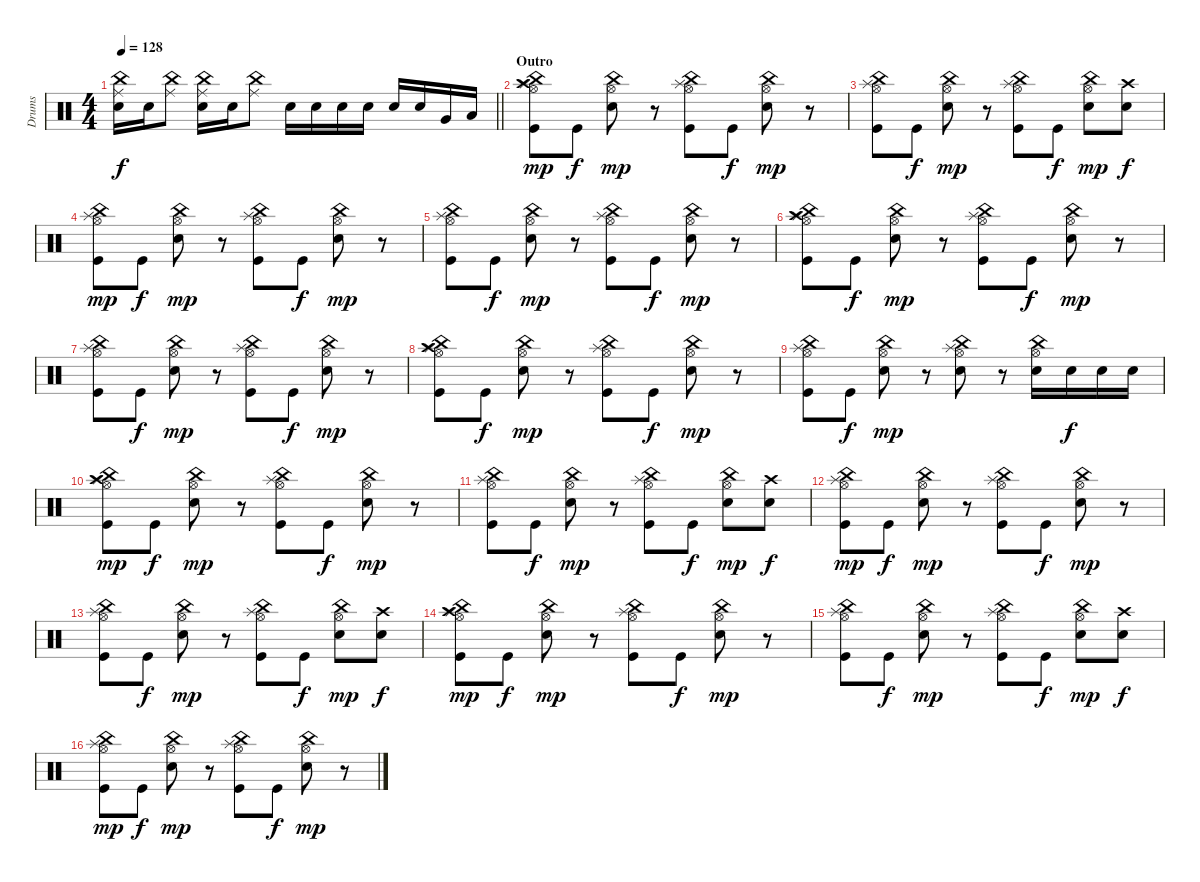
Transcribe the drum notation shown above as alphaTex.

\track ("Drums" "Drums") {instrument percussion}
\staff {score}
\articulation defaults
\ts (4 4)
\tempo 128
\clef neutral
\barLineRight lightlight
\ks c
("Ride (middle)" "China (hit)" "Electric Snare (hit)").16{dy f} "Electric Snare (hit)".16 ("Ride (middle)" "China (hit)").8 ("Ride (middle)" "China (hit)" "Electric Snare (hit)").16 "Electric Snare (hit)".16 ("Ride (middle)" "China (hit)").8 "Electric Snare (hit)".16 "Electric Snare (hit)".16 "Electric Snare (hit)".16 "Electric Snare (hit)".16 "Electric Snare (hit)".16 "Electric Snare (hit)".16 "Very Low Tom (hit)".16 "Low Floor Tom (hit)".16 |
\section ("" "Outro")
("Crash high (hit)" "Hi-Hat (open)" "China (hit)" "Splash (hit)" "Kick (hit)").8{dy mp volume 16} "Kick (hit)".8{dy f} ("Hi-Hat (open)" "China (hit)" "Snare (hit) 2").8{dy mp} r.8 ("Hi-Hat (open)" "China (hit)" "Splash (hit)" "Kick (hit)").8 "Kick (hit)".8{dy f} ("Hi-Hat (open)" "China (hit)" "Snare (hit) 2").8{dy mp} r.8 |
("Hi-Hat (open)" "China (hit)" "Splash (hit)" "Kick (hit)").8 "Kick (hit)".8{dy f} ("Hi-Hat (open)" "China (hit)" "Snare (hit) 2").8{dy mp} r.8 ("Hi-Hat (open)" "China (hit)" "Splash (hit)" "Kick (hit)").8 "Kick (hit)".8{dy f} ("Hi-Hat (open)" "China (hit)" "Snare (hit) 2").8{dy mp} ("Crash high (hit)" "Snare (hit) 2").8{dy f} |
("Hi-Hat (open)" "China (hit)" "Splash (hit)" "Kick (hit)").8{dy mp} "Kick (hit)".8{dy f} ("Hi-Hat (open)" "China (hit)" "Snare (hit) 2").8{dy mp} r.8 ("Hi-Hat (open)" "China (hit)" "Splash (hit)" "Kick (hit)").8 "Kick (hit)".8{dy f} ("Hi-Hat (open)" "China (hit)" "Snare (hit) 2").8{dy mp} r.8 |
("Hi-Hat (open)" "China (hit)" "Splash (hit)" "Kick (hit)").8 "Kick (hit)".8{dy f} ("Hi-Hat (open)" "China (hit)" "Snare (hit) 2").8{dy mp} r.8 ("Hi-Hat (open)" "China (hit)" "Splash (hit)" "Kick (hit)").8 "Kick (hit)".8{dy f} ("Hi-Hat (open)" "China (hit)" "Snare (hit) 2").8{dy mp} r.8 |
("Crash high (hit)" "Hi-Hat (open)" "China (hit)" "Splash (hit)" "Kick (hit)").8 "Kick (hit)".8{dy f} ("Hi-Hat (open)" "China (hit)" "Snare (hit) 2").8{dy mp} r.8 ("Hi-Hat (open)" "China (hit)" "Splash (hit)" "Kick (hit)").8 "Kick (hit)".8{dy f} ("Hi-Hat (open)" "China (hit)" "Snare (hit) 2").8{dy mp} r.8 |
("Hi-Hat (open)" "China (hit)" "Splash (hit)" "Kick (hit)").8 "Kick (hit)".8{dy f} ("Hi-Hat (open)" "China (hit)" "Snare (hit) 2").8{dy mp} r.8 ("Hi-Hat (open)" "China (hit)" "Splash (hit)" "Kick (hit)").8 "Kick (hit)".8{dy f} ("Hi-Hat (open)" "China (hit)" "Snare (hit) 2").8{dy mp} r.8 |
("Crash high (hit)" "Hi-Hat (open)" "China (hit)" "Splash (hit)" "Kick (hit)").8 "Kick (hit)".8{dy f} ("Hi-Hat (open)" "China (hit)" "Snare (hit) 2").8{dy mp} r.8 ("Hi-Hat (open)" "China (hit)" "Splash (hit)" "Kick (hit)").8 "Kick (hit)".8{dy f} ("Hi-Hat (open)" "China (hit)" "Snare (hit) 2").8{dy mp} r.8 |
("Hi-Hat (open)" "China (hit)" "Splash (hit)" "Kick (hit)").8 "Kick (hit)".8{dy f} ("Hi-Hat (open)" "China (hit)" "Snare (hit) 2").8{dy mp} r.8 ("Hi-Hat (open)" "China (hit)" "Splash (hit)" "Snare (hit) 2").8 r.8 ("Hi-Hat (open)" "China (hit)" "Snare (hit) 2").16 "Snare (hit) 2".16{dy f} "Snare (hit) 2".16 "Snare (hit) 2".16 |
("Crash high (hit)" "Hi-Hat (open)" "China (hit)" "Splash (hit)" "Kick (hit)").8{dy mp} "Kick (hit)".8{dy f} ("Hi-Hat (open)" "China (hit)" "Snare (hit) 2").8{dy mp} r.8 ("Hi-Hat (open)" "China (hit)" "Splash (hit)" "Kick (hit)").8 "Kick (hit)".8{dy f} ("Hi-Hat (open)" "China (hit)" "Snare (hit) 2").8{dy mp} r.8 |
("Hi-Hat (open)" "China (hit)" "Splash (hit)" "Kick (hit)").8 "Kick (hit)".8{dy f} ("Hi-Hat (open)" "China (hit)" "Snare (hit) 2").8{dy mp} r.8 ("Hi-Hat (open)" "China (hit)" "Splash (hit)" "Kick (hit)").8 "Kick (hit)".8{dy f} ("Hi-Hat (open)" "China (hit)" "Snare (hit) 2").8{dy mp} ("Crash high (hit)" "Snare (hit) 2").8{dy f} |
("Hi-Hat (open)" "China (hit)" "Splash (hit)" "Kick (hit)").8{dy mp} "Kick (hit)".8{dy f} ("Hi-Hat (open)" "China (hit)" "Snare (hit) 2").8{dy mp} r.8 ("Hi-Hat (open)" "China (hit)" "Splash (hit)" "Kick (hit)").8 "Kick (hit)".8{dy f} ("Hi-Hat (open)" "China (hit)" "Snare (hit) 2").8{dy mp} r.8 |
("Hi-Hat (open)" "China (hit)" "Splash (hit)" "Kick (hit)").8 "Kick (hit)".8{dy f} ("Hi-Hat (open)" "China (hit)" "Snare (hit) 2").8{dy mp} r.8 ("Hi-Hat (open)" "China (hit)" "Splash (hit)" "Kick (hit)").8 "Kick (hit)".8{dy f} ("Hi-Hat (open)" "China (hit)" "Snare (hit) 2").8{dy mp} ("Crash high (hit)" "Snare (hit) 2").8{dy f} |
("Crash high (hit)" "Hi-Hat (open)" "China (hit)" "Splash (hit)" "Kick (hit)").8{dy mp} "Kick (hit)".8{dy f} ("Hi-Hat (open)" "China (hit)" "Snare (hit) 2").8{dy mp} r.8 ("Hi-Hat (open)" "China (hit)" "Splash (hit)" "Kick (hit)").8 "Kick (hit)".8{dy f} ("Hi-Hat (open)" "China (hit)" "Snare (hit) 2").8{dy mp} r.8 |
("Hi-Hat (open)" "China (hit)" "Splash (hit)" "Kick (hit)").8 "Kick (hit)".8{dy f} ("Hi-Hat (open)" "China (hit)" "Snare (hit) 2").8{dy mp} r.8 ("Hi-Hat (open)" "China (hit)" "Splash (hit)" "Kick (hit)").8 "Kick (hit)".8{dy f} ("Hi-Hat (open)" "China (hit)" "Snare (hit) 2").8{dy mp} ("Crash high (hit)" "Snare (hit) 2").8{dy f} |
("Hi-Hat (open)" "China (hit)" "Splash (hit)" "Kick (hit)").8{dy mp} "Kick (hit)".8{dy f} ("Hi-Hat (open)" "China (hit)" "Snare (hit) 2").8{dy mp} r.8 ("Hi-Hat (open)" "China (hit)" "Splash (hit)" "Kick (hit)").8 "Kick (hit)".8{dy f} ("Hi-Hat (open)" "China (hit)" "Snare (hit) 2").8{dy mp} r.8
